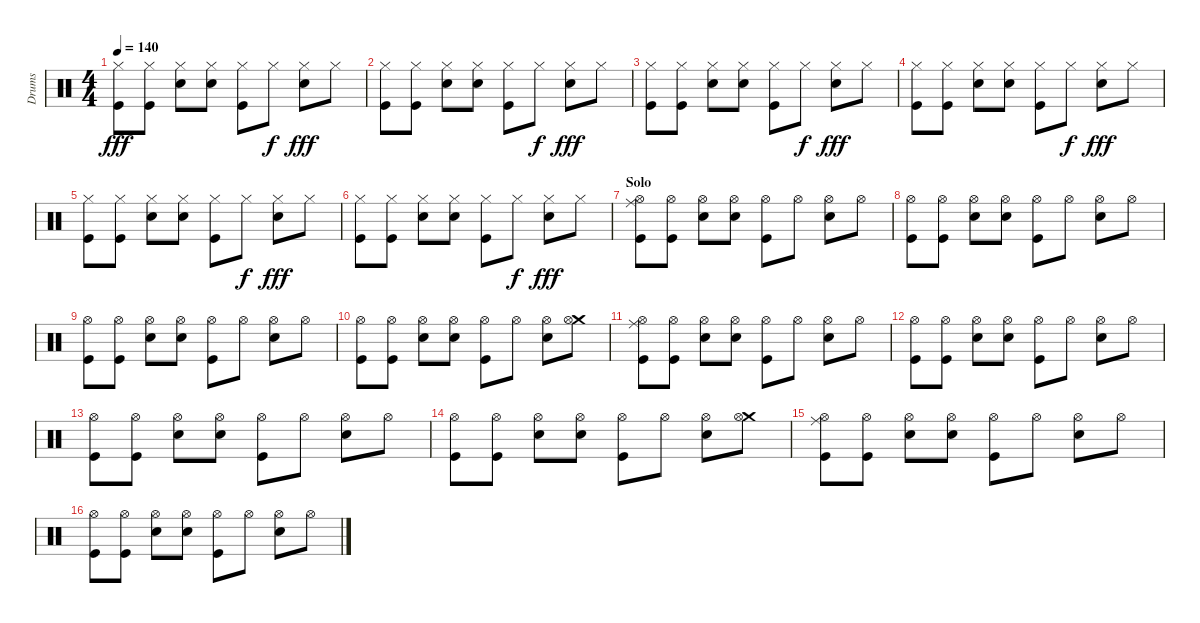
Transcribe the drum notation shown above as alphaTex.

\track ("Drums" "Drums") {instrument percussion}
\staff {score}
\articulation defaults
\ts (4 4)
\tempo 140
\clef neutral
\ks c
("Kick (hit)" "Hi-Hat (closed)").8{dy fff} ("Kick (hit)" "Hi-Hat (closed)").8 ("Snare (hit) 2" "Hi-Hat (closed)").8 ("Snare (hit) 2" "Hi-Hat (closed)").8 ("Kick (hit)" "Hi-Hat (closed)").8 "Hi-Hat (closed)".8{dy f} ("Snare (hit) 2" "Hi-Hat (closed)").8{dy fff} "Hi-Hat (closed)".8 |
("Kick (hit)" "Hi-Hat (closed)").8 ("Kick (hit)" "Hi-Hat (closed)").8 ("Snare (hit) 2" "Hi-Hat (closed)").8 ("Snare (hit) 2" "Hi-Hat (closed)").8 ("Kick (hit)" "Hi-Hat (closed)").8 "Hi-Hat (closed)".8{dy f} ("Snare (hit) 2" "Hi-Hat (closed)").8{dy fff} "Hi-Hat (closed)".8 |
("Kick (hit)" "Hi-Hat (closed)").8 ("Kick (hit)" "Hi-Hat (closed)").8 ("Snare (hit) 2" "Hi-Hat (closed)").8 ("Snare (hit) 2" "Hi-Hat (closed)").8 ("Kick (hit)" "Hi-Hat (closed)").8 "Hi-Hat (closed)".8{dy f} ("Snare (hit) 2" "Hi-Hat (closed)").8{dy fff} "Hi-Hat (closed)".8 |
("Kick (hit)" "Hi-Hat (closed)").8 ("Kick (hit)" "Hi-Hat (closed)").8 ("Snare (hit) 2" "Hi-Hat (closed)").8 ("Snare (hit) 2" "Hi-Hat (closed)").8 ("Kick (hit)" "Hi-Hat (closed)").8 "Hi-Hat (closed)".8{dy f} ("Snare (hit) 2" "Hi-Hat (closed)").8{dy fff} "Hi-Hat (closed)".8 |
("Kick (hit)" "Hi-Hat (closed)").8 ("Kick (hit)" "Hi-Hat (closed)").8 ("Snare (hit) 2" "Hi-Hat (closed)").8 ("Snare (hit) 2" "Hi-Hat (closed)").8 ("Kick (hit)" "Hi-Hat (closed)").8 "Hi-Hat (closed)".8{dy f} ("Snare (hit) 2" "Hi-Hat (closed)").8{dy fff} "Hi-Hat (closed)".8 |
("Kick (hit)" "Hi-Hat (closed)").8 ("Kick (hit)" "Hi-Hat (closed)").8 ("Snare (hit) 2" "Hi-Hat (closed)").8 ("Snare (hit) 2" "Hi-Hat (closed)").8 ("Kick (hit)" "Hi-Hat (closed)").8 "Hi-Hat (closed)".8{dy f} ("Snare (hit) 2" "Hi-Hat (closed)").8{dy fff} "Hi-Hat (closed)".8 |
\section ("" "Solo")
("Ride (middle)" "Kick (hit)" "Hi-Hat (open)").8 ("Kick (hit)" "Hi-Hat (open)").8 ("Snare (hit) 2" "Hi-Hat (open)").8 ("Snare (hit) 2" "Hi-Hat (open)").8 ("Kick (hit)" "Hi-Hat (open)").8 "Hi-Hat (open)".8 ("Snare (hit) 2" "Hi-Hat (open)").8 "Hi-Hat (open)".8 |
("Kick (hit)" "Hi-Hat (open)").8 ("Kick (hit)" "Hi-Hat (open)").8 ("Snare (hit) 2" "Hi-Hat (open)").8 ("Snare (hit) 2" "Hi-Hat (open)").8 ("Kick (hit)" "Hi-Hat (open)").8 "Hi-Hat (open)".8 ("Snare (hit) 2" "Hi-Hat (open)").8 "Hi-Hat (open)".8 |
("Kick (hit)" "Hi-Hat (open)").8 ("Kick (hit)" "Hi-Hat (open)").8 ("Snare (hit) 2" "Hi-Hat (open)").8 ("Snare (hit) 2" "Hi-Hat (open)").8 ("Kick (hit)" "Hi-Hat (open)").8 "Hi-Hat (open)".8 ("Snare (hit) 2" "Hi-Hat (open)").8 "Hi-Hat (open)".8 |
("Kick (hit)" "Hi-Hat (open)").8 ("Kick (hit)" "Hi-Hat (open)").8 ("Snare (hit) 2" "Hi-Hat (open)").8 ("Snare (hit) 2" "Hi-Hat (open)").8 ("Kick (hit)" "Hi-Hat (open)").8 "Hi-Hat (open)".8 ("Snare (hit) 2" "Hi-Hat (open)").8 ("Crash medium (hit)" "Hi-Hat (open)").8 |
("Ride (middle)" "Kick (hit)" "Hi-Hat (open)").8 ("Kick (hit)" "Hi-Hat (open)").8 ("Snare (hit) 2" "Hi-Hat (open)").8 ("Snare (hit) 2" "Hi-Hat (open)").8 ("Kick (hit)" "Hi-Hat (open)").8 "Hi-Hat (open)".8 ("Snare (hit) 2" "Hi-Hat (open)").8 "Hi-Hat (open)".8 |
("Kick (hit)" "Hi-Hat (open)").8 ("Kick (hit)" "Hi-Hat (open)").8 ("Snare (hit) 2" "Hi-Hat (open)").8 ("Snare (hit) 2" "Hi-Hat (open)").8 ("Kick (hit)" "Hi-Hat (open)").8 "Hi-Hat (open)".8 ("Snare (hit) 2" "Hi-Hat (open)").8 "Hi-Hat (open)".8 |
("Kick (hit)" "Hi-Hat (open)").8 ("Kick (hit)" "Hi-Hat (open)").8 ("Snare (hit) 2" "Hi-Hat (open)").8 ("Snare (hit) 2" "Hi-Hat (open)").8 ("Kick (hit)" "Hi-Hat (open)").8 "Hi-Hat (open)".8 ("Snare (hit) 2" "Hi-Hat (open)").8 "Hi-Hat (open)".8 |
("Kick (hit)" "Hi-Hat (open)").8 ("Kick (hit)" "Hi-Hat (open)").8 ("Snare (hit) 2" "Hi-Hat (open)").8 ("Snare (hit) 2" "Hi-Hat (open)").8 ("Kick (hit)" "Hi-Hat (open)").8 "Hi-Hat (open)".8 ("Snare (hit) 2" "Hi-Hat (open)").8 ("Crash medium (hit)" "Hi-Hat (open)").8 |
("Ride (middle)" "Kick (hit)" "Hi-Hat (open)").8 ("Kick (hit)" "Hi-Hat (open)").8 ("Snare (hit) 2" "Hi-Hat (open)").8 ("Snare (hit) 2" "Hi-Hat (open)").8 ("Kick (hit)" "Hi-Hat (open)").8 "Hi-Hat (open)".8 ("Snare (hit) 2" "Hi-Hat (open)").8 "Hi-Hat (open)".8 |
("Kick (hit)" "Hi-Hat (open)").8 ("Kick (hit)" "Hi-Hat (open)").8 ("Snare (hit) 2" "Hi-Hat (open)").8 ("Snare (hit) 2" "Hi-Hat (open)").8 ("Kick (hit)" "Hi-Hat (open)").8 "Hi-Hat (open)".8 ("Snare (hit) 2" "Hi-Hat (open)").8 "Hi-Hat (open)".8
